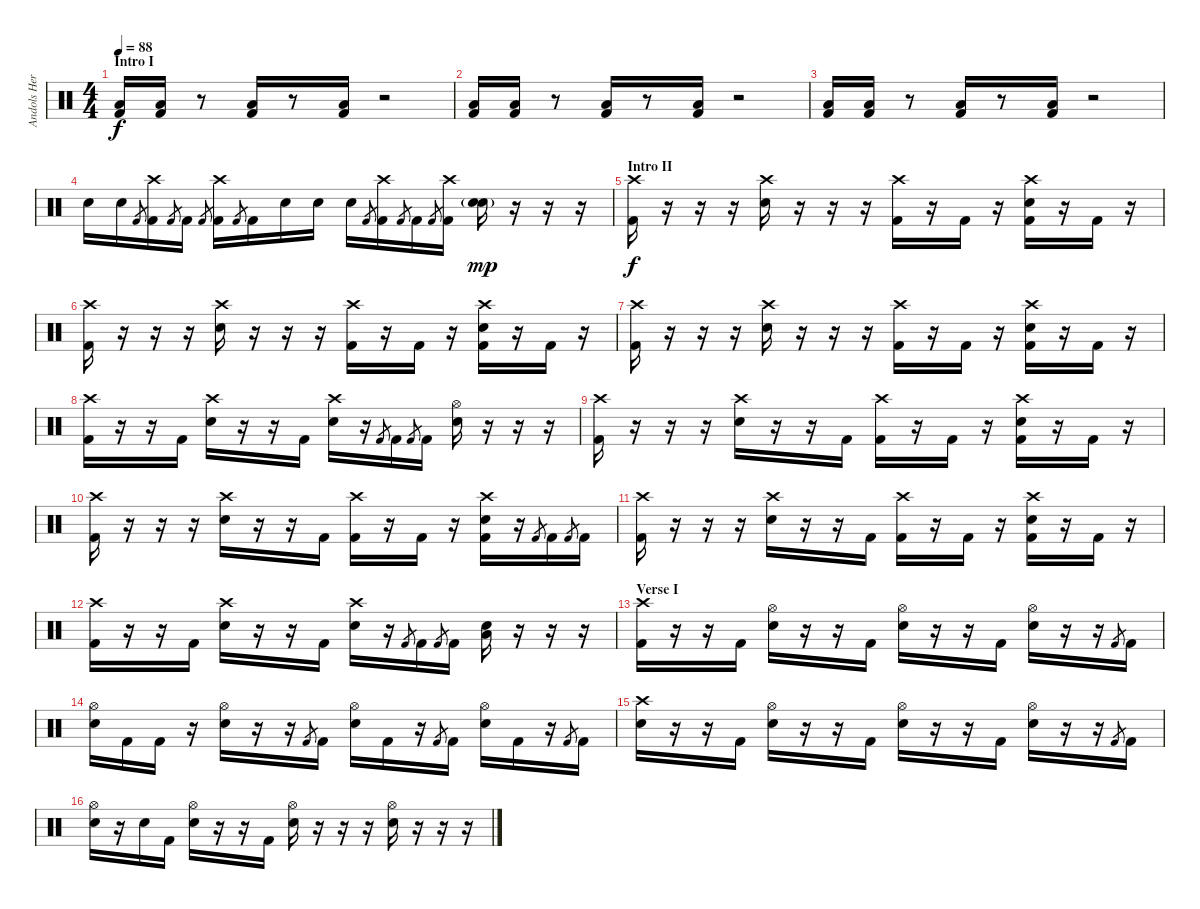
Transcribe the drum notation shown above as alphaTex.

\track ("Andols Herrick" "Andols Her") {instrument percussion}
\staff {score}
\articulation defaults
\ts (4 4)
\section ("" "Intro I")
\tempo 88
\clef neutral
\ks c
("Low Floor Tom (hit)" "Kick (hit) 2").16{dy f} ("Low Floor Tom (hit)" "Kick (hit) 2").16 r.8 ("Low Floor Tom (hit)" "Kick (hit) 2").16 r.8 ("Low Floor Tom (hit)" "Kick (hit) 2").16 r.2 |
("Low Floor Tom (hit)" "Kick (hit) 2").16 ("Low Floor Tom (hit)" "Kick (hit) 2").16 r.8 ("Low Floor Tom (hit)" "Kick (hit) 2").16 r.8 ("Low Floor Tom (hit)" "Kick (hit) 2").16 r.2 |
("Low Floor Tom (hit)" "Kick (hit) 2").16 ("Low Floor Tom (hit)" "Kick (hit) 2").16 r.8 ("Low Floor Tom (hit)" "Kick (hit) 2").16 r.8 ("Low Floor Tom (hit)" "Kick (hit) 2").16 r.2 |
"Snare (hit) 2".16 "Snare (hit) 2".16 "Kick (hit) 2".8{gr} ("Crash high (hit)" "Kick (hit) 2").16 "Kick (hit) 2".8{gr} "Kick (hit) 2".16 "Kick (hit) 2".8{gr} ("Crash high (hit)" "Kick (hit) 2").16 "Kick (hit) 2".8{gr} "Kick (hit) 2".16 "Snare (hit) 2".16 "Snare (hit) 2".16 "Snare (hit) 2".16 "Kick (hit) 2".8{gr} ("Crash high (hit)" "Kick (hit) 2").16 "Kick (hit) 2".8{gr} "Kick (hit) 2".16 "Kick (hit) 2".8{gr} ("Crash high (hit)" "Kick (hit) 2").16 ("Snare (hit) 2"{g} "Snare (hit) 2").16{dy mp} r.16 r.16 r.16 |
\section ("" "Intro II")
("Crash high (hit)" "Kick (hit) 2").16{dy f} r.16 r.16 r.16 ("Crash high (hit)" "Snare (hit) 2").16 r.16 r.16 r.16 ("Crash high (hit)" "Kick (hit) 2").16 r.16 "Kick (hit) 2".16 r.16 ("Crash high (hit)" "Snare (hit) 2" "Kick (hit) 2").16 r.16 "Kick (hit) 2".16 r.16 |
("Crash high (hit)" "Kick (hit) 2").16 r.16 r.16 r.16 ("Crash high (hit)" "Snare (hit) 2").16 r.16 r.16 r.16 ("Crash high (hit)" "Kick (hit) 2").16 r.16 "Kick (hit) 2".16 r.16 ("Crash high (hit)" "Snare (hit) 2" "Kick (hit) 2").16 r.16 "Kick (hit) 2".16 r.16 |
("Crash high (hit)" "Kick (hit) 2").16 r.16 r.16 r.16 ("Crash high (hit)" "Snare (hit) 2").16 r.16 r.16 r.16 ("Crash high (hit)" "Kick (hit) 2").16 r.16 "Kick (hit) 2".16 r.16 ("Crash high (hit)" "Snare (hit) 2" "Kick (hit) 2").16 r.16 "Kick (hit) 2".16 r.16 |
("Crash high (hit)" "Kick (hit) 2").16 r.16 r.16 "Kick (hit) 2".16 ("Crash high (hit)" "Snare (hit) 2").16 r.16 r.16 "Kick (hit) 2".16 ("Crash high (hit)" "Snare (hit) 2").16 r.16 "Kick (hit) 2".8{gr} "Kick (hit) 2".16 "Kick (hit) 2".8{gr} "Kick (hit) 2".16 ("Hi-Hat (open)" "Snare (hit) 2").16 r.16 r.16 r.16 |
("Crash high (hit)" "Kick (hit) 2").16 r.16 r.16 r.16 ("Crash high (hit)" "Snare (hit) 2").16 r.16 r.16 "Kick (hit) 2".16 ("Crash high (hit)" "Kick (hit) 2").16 r.16 "Kick (hit) 2".16 r.16 ("Crash high (hit)" "Snare (hit) 2" "Kick (hit) 2").16 r.16 "Kick (hit) 2".16 r.16 |
("Crash high (hit)" "Kick (hit) 2").16 r.16 r.16 r.16 ("Crash high (hit)" "Snare (hit) 2").16 r.16 r.16 "Kick (hit) 2".16 ("Crash high (hit)" "Kick (hit) 2").16 r.16 "Kick (hit) 2".16 r.16 ("Crash high (hit)" "Snare (hit) 2" "Kick (hit) 2").16 r.16 "Kick (hit) 2".8{gr} "Kick (hit) 2".16 "Kick (hit) 2".8{gr} "Kick (hit) 2".16 |
("Crash high (hit)" "Kick (hit) 2").16 r.16 r.16 r.16 ("Crash high (hit)" "Snare (hit) 2").16 r.16 r.16 "Kick (hit) 2".16 ("Crash high (hit)" "Kick (hit) 2").16 r.16 "Kick (hit) 2".16 r.16 ("Crash high (hit)" "Snare (hit) 2" "Kick (hit) 2").16 r.16 "Kick (hit) 2".16 r.16 |
("Crash high (hit)" "Kick (hit) 2").16 r.16 r.16 "Kick (hit) 2".16 ("Crash high (hit)" "Snare (hit) 2").16 r.16 r.16 "Kick (hit) 2".16 ("Crash high (hit)" "Snare (hit) 2").16 r.16 "Kick (hit) 2".8{gr} "Kick (hit) 2".16 "Kick (hit) 2".8{gr} "Kick (hit) 2".16 ("Snare (hit) 2" "Low Floor Tom (hit)").16 r.16 r.16 r.16 |
\section ("" "Verse I")
("Crash high (hit)" "Kick (hit) 2").16 r.16 r.16 "Kick (hit) 2".16 ("Hi-Hat (open)" "Snare (hit) 2").16 r.16 r.16 "Kick (hit) 2".16 ("Hi-Hat (open)" "Snare (hit) 2").16 r.16 r.16 "Kick (hit) 2".16 ("Hi-Hat (open)" "Snare (hit) 2").16 r.16 r.16 "Kick (hit) 2".8{gr} "Kick (hit) 2".16 |
("Hi-Hat (open)" "Snare (hit) 2").16 "Kick (hit) 2".16 "Kick (hit) 2".16 r.16 ("Hi-Hat (open)" "Snare (hit) 2").16 r.16 r.16 "Kick (hit) 2".8{gr} "Kick (hit) 2".16 ("Hi-Hat (open)" "Snare (hit) 2").16 "Kick (hit) 2".16 r.16 "Kick (hit) 2".8{gr} "Kick (hit) 2".16 ("Hi-Hat (open)" "Snare (hit) 2").16 "Kick (hit) 2".16 r.16 "Kick (hit) 2".8{gr} "Kick (hit) 2".16 |
("Crash high (hit)" "Snare (hit) 2").16 r.16 r.16 "Kick (hit) 2".16 ("Hi-Hat (open)" "Snare (hit) 2").16 r.16 r.16 "Kick (hit) 2".16 ("Hi-Hat (open)" "Snare (hit) 2").16 r.16 r.16 "Kick (hit) 2".16 ("Hi-Hat (open)" "Snare (hit) 2").16 r.16 r.16 "Kick (hit) 2".8{gr} "Kick (hit) 2".16 |
("Hi-Hat (open)" "Snare (hit) 2").16 r.16 "Snare (hit) 2".16 "Kick (hit) 2".16 ("Hi-Hat (open)" "Snare (hit) 2").16 r.16 r.16 "Kick (hit) 2".16 ("Hi-Hat (open)" "Snare (hit) 2").16 r.16 r.16 r.16 ("Hi-Hat (open)" "Snare (hit) 2").16 r.16 r.16 r.16
